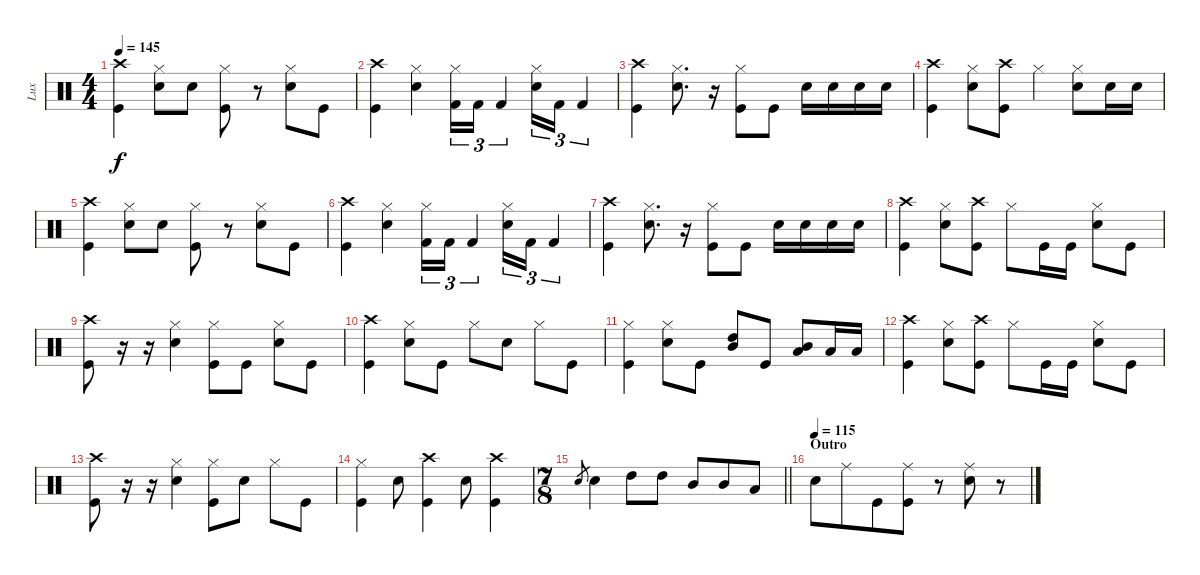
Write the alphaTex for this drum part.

\track ("Lux" "Lux") {instrument percussion}
\staff {score}
\articulation defaults
\ts (4 4)
\tempo 145
\clef neutral
\ks c
("Crash high (hit)" "Kick (hit)").4{dy f} ("Hi-Hat (closed)" "Snare (hit) 2").8 "Snare (hit) 2".8 ("Hi-Hat (closed)" "Kick (hit)").8 r.8 ("Hi-Hat (closed)" "Snare (hit) 2").8 "Kick (hit)".8 |
("Crash high (hit)" "Kick (hit)").4 ("Hi-Hat (closed)" "Snare (hit) 2").4 ("Hi-Hat (closed)" "Kick (hit) 2").16{tu (3 2)} "Kick (hit) 2".16{tu (3 2)} "Kick (hit) 2".4{tu (3 2)} ("Hi-Hat (closed)" "Snare (hit) 2").16{tu (3 2)} "Kick (hit) 2".16{tu (3 2)} "Kick (hit) 2".4{tu (3 2)} |
("Crash high (hit)" "Kick (hit)").4 ("Hi-Hat (closed)" "Snare (hit) 2").8{d} r.16 ("Hi-Hat (closed)" "Kick (hit)").8 "Kick (hit)".8 "Snare (hit) 2".16 "Snare (hit) 2".16 "Snare (hit) 2".16 "Snare (hit) 2".16 |
("Crash high (hit)" "Kick (hit)").4 ("Hi-Hat (closed)" "Snare (hit) 2").8 ("Crash high (hit)" "Kick (hit)").8 "Hi-Hat (closed)".4 ("Hi-Hat (closed)" "Snare (hit) 2").8 "Snare (hit) 2".16 "Snare (hit) 2".16 |
("Crash high (hit)" "Kick (hit)").4 ("Hi-Hat (closed)" "Snare (hit) 2").8 "Snare (hit) 2".8 ("Hi-Hat (closed)" "Kick (hit)").8 r.8 ("Hi-Hat (closed)" "Snare (hit) 2").8 "Kick (hit)".8 |
("Crash high (hit)" "Kick (hit)").4 ("Hi-Hat (closed)" "Snare (hit) 2").4 ("Hi-Hat (closed)" "Kick (hit) 2").16{tu (3 2)} "Kick (hit) 2".16{tu (3 2)} "Kick (hit) 2".4{tu (3 2)} ("Hi-Hat (closed)" "Snare (hit) 2").16{tu (3 2)} "Kick (hit) 2".16{tu (3 2)} "Kick (hit) 2".4{tu (3 2)} |
("Crash high (hit)" "Kick (hit)").4 ("Hi-Hat (closed)" "Snare (hit) 2").8{d} r.16 ("Hi-Hat (closed)" "Kick (hit)").8 "Kick (hit)".8 "Snare (hit) 2".16 "Snare (hit) 2".16 "Snare (hit) 2".16 "Snare (hit) 2".16 |
("Crash high (hit)" "Kick (hit)").4 ("Hi-Hat (closed)" "Snare (hit) 2").8 ("Crash high (hit)" "Kick (hit)").8 "Hi-Hat (closed)".8 "Kick (hit)".16 "Kick (hit)".16 ("Hi-Hat (closed)" "Snare (hit) 2").8 "Kick (hit)".8 |
("Crash high (hit)" "Kick (hit)").8 r.16 r.16 ("Hi-Hat (closed)" "Snare (hit) 2").4 ("Hi-Hat (closed)" "Kick (hit)").8 "Kick (hit)".8 ("Hi-Hat (closed)" "Snare (hit) 2").8 "Kick (hit)".8 |
("Crash high (hit)" "Kick (hit)").4 ("Hi-Hat (closed)" "Snare (hit) 2").8 "Kick (hit)".8 "Hi-Hat (closed)".8 "Snare (hit) 2".8 "Hi-Hat (closed)".8 "Kick (hit)".8 |
("Hi-Hat (closed)" "Kick (hit)").4 ("Hi-Hat (closed)" "Snare (hit) 2").8 "Kick (hit)".8 ("High Tom (hit)" "Mid Tom (hit)").8 "Kick (hit)".8 ("Mid Tom (hit)" "Low Tom (hit)").8 "Low Tom (hit)".16 "Low Tom (hit)".16 |
("Crash high (hit)" "Kick (hit)").4 ("Hi-Hat (closed)" "Snare (hit) 2").8 ("Crash high (hit)" "Kick (hit)").8 "Hi-Hat (closed)".8 "Kick (hit)".16 "Kick (hit)".16 ("Hi-Hat (closed)" "Snare (hit) 2").8 "Kick (hit)".8 |
("Crash high (hit)" "Kick (hit)").8 r.16 r.16 ("Hi-Hat (closed)" "Snare (hit) 2").4 ("Hi-Hat (closed)" "Kick (hit)").8 "Snare (hit) 2".8 "Hi-Hat (closed)".8 "Kick (hit)".8 |
("Hi-Hat (closed)" "Kick (hit)").4 "Snare (hit) 2".8 ("Crash high (hit)" "Kick (hit)").4 "Snare (hit) 2".8 ("Crash high (hit)" "Kick (hit)").4 |
\ts (7 8)
\barLineRight lightlight "Snare (hit) 2".8{gr} "Snare (hit) 2".4 "High Tom (hit)".8 "High Tom (hit)".8 "Mid Tom (hit)".8 "Mid Tom (hit)".8 "Low Tom (hit)".8
|
\section ("" "Outro")
\tempo (115)
"Snare (hit) 2".8 "Ride (middle)".8 "Kick (hit)".8 ("Ride (middle)" "Kick (hit)").8 r.8 ("Ride (middle)" "Snare (hit) 2").8 r.8
